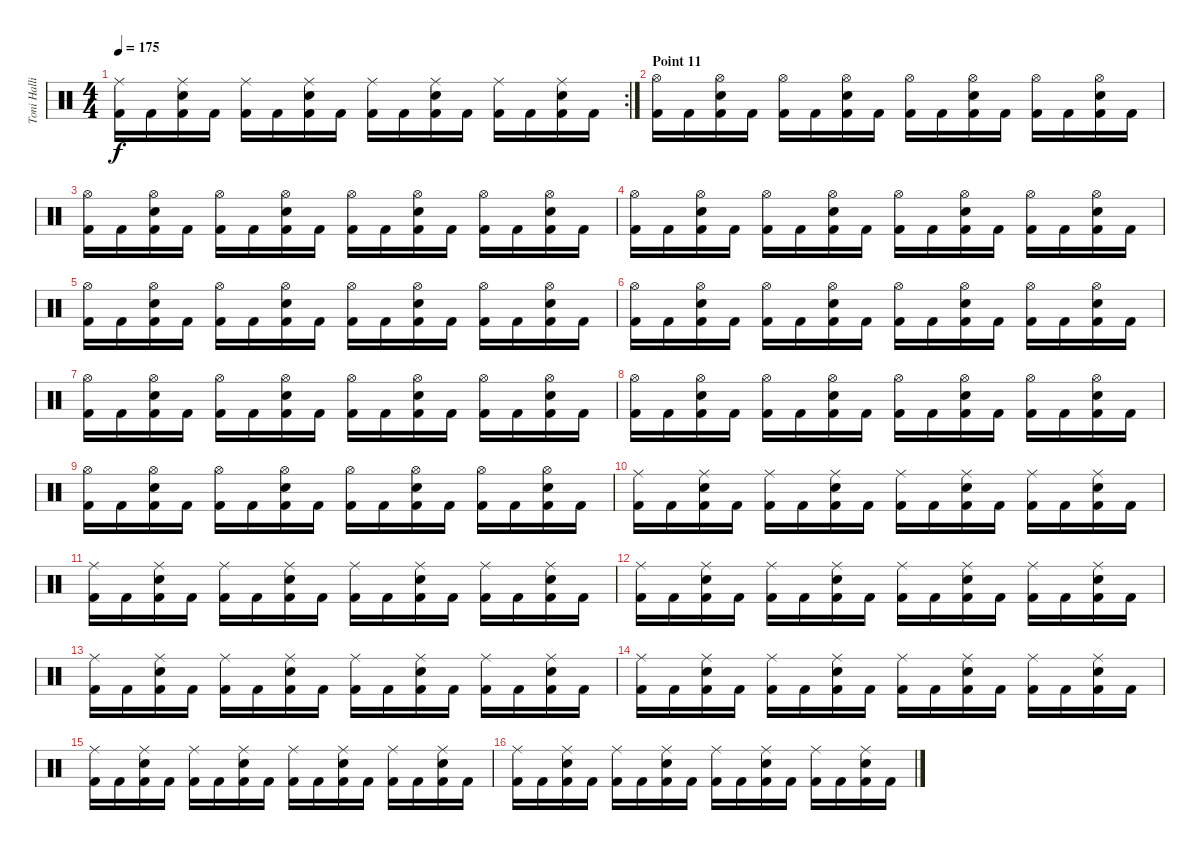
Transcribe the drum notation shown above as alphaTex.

\track ("Toni Hallio" "Toni Halli") {instrument percussion}
\staff {score}
\articulation defaults
\rc 2
\ts (4 4)
\tempo 175
\clef neutral
\ks c
("Ride (middle)" "Kick (hit) 2").16{dy f} "Kick (hit) 2".16 ("Ride (middle)" "Snare (hit) 2" "Kick (hit) 2").16 "Kick (hit) 2".16 ("Ride (middle)" "Kick (hit) 2").16 "Kick (hit) 2".16 ("Ride (middle)" "Snare (hit) 2" "Kick (hit) 2").16 "Kick (hit) 2".16 ("Ride (middle)" "Kick (hit) 2").16 "Kick (hit) 2".16 ("Ride (middle)" "Snare (hit) 2" "Kick (hit) 2").16 "Kick (hit) 2".16 ("Ride (middle)" "Kick (hit) 2").16 "Kick (hit) 2".16 ("Ride (middle)" "Snare (hit) 2" "Kick (hit) 2").16 "Kick (hit) 2".16 |
\section ("" "Point 11")
("Hi-Hat (open)" "Kick (hit) 2").16 "Kick (hit) 2".16 ("Hi-Hat (open)" "Snare (hit) 2" "Kick (hit) 2").16 "Kick (hit) 2".16 ("Hi-Hat (open)" "Kick (hit) 2").16 "Kick (hit) 2".16 ("Hi-Hat (open)" "Snare (hit) 2" "Kick (hit) 2").16 "Kick (hit) 2".16 ("Hi-Hat (open)" "Kick (hit) 2").16 "Kick (hit) 2".16 ("Hi-Hat (open)" "Snare (hit) 2" "Kick (hit) 2").16 "Kick (hit) 2".16 ("Hi-Hat (open)" "Kick (hit) 2").16 "Kick (hit) 2".16 ("Hi-Hat (open)" "Snare (hit) 2" "Kick (hit) 2").16 "Kick (hit) 2".16 |
("Hi-Hat (open)" "Kick (hit) 2").16 "Kick (hit) 2".16 ("Hi-Hat (open)" "Snare (hit) 2" "Kick (hit) 2").16 "Kick (hit) 2".16 ("Hi-Hat (open)" "Kick (hit) 2").16 "Kick (hit) 2".16 ("Hi-Hat (open)" "Snare (hit) 2" "Kick (hit) 2").16 "Kick (hit) 2".16 ("Hi-Hat (open)" "Kick (hit) 2").16 "Kick (hit) 2".16 ("Hi-Hat (open)" "Snare (hit) 2" "Kick (hit) 2").16 "Kick (hit) 2".16 ("Hi-Hat (open)" "Kick (hit) 2").16 "Kick (hit) 2".16 ("Hi-Hat (open)" "Snare (hit) 2" "Kick (hit) 2").16 "Kick (hit) 2".16 |
("Hi-Hat (open)" "Kick (hit) 2").16 "Kick (hit) 2".16 ("Hi-Hat (open)" "Snare (hit) 2" "Kick (hit) 2").16 "Kick (hit) 2".16 ("Hi-Hat (open)" "Kick (hit) 2").16 "Kick (hit) 2".16 ("Hi-Hat (open)" "Snare (hit) 2" "Kick (hit) 2").16 "Kick (hit) 2".16 ("Hi-Hat (open)" "Kick (hit) 2").16 "Kick (hit) 2".16 ("Hi-Hat (open)" "Snare (hit) 2" "Kick (hit) 2").16 "Kick (hit) 2".16 ("Hi-Hat (open)" "Kick (hit) 2").16 "Kick (hit) 2".16 ("Hi-Hat (open)" "Snare (hit) 2" "Kick (hit) 2").16 "Kick (hit) 2".16 |
("Hi-Hat (open)" "Kick (hit) 2").16 "Kick (hit) 2".16 ("Hi-Hat (open)" "Snare (hit) 2" "Kick (hit) 2").16 "Kick (hit) 2".16 ("Hi-Hat (open)" "Kick (hit) 2").16 "Kick (hit) 2".16 ("Hi-Hat (open)" "Snare (hit) 2" "Kick (hit) 2").16 "Kick (hit) 2".16 ("Hi-Hat (open)" "Kick (hit) 2").16 "Kick (hit) 2".16 ("Hi-Hat (open)" "Snare (hit) 2" "Kick (hit) 2").16 "Kick (hit) 2".16 ("Hi-Hat (open)" "Kick (hit) 2").16 "Kick (hit) 2".16 ("Hi-Hat (open)" "Snare (hit) 2" "Kick (hit) 2").16 "Kick (hit) 2".16 |
("Hi-Hat (open)" "Kick (hit) 2").16 "Kick (hit) 2".16 ("Hi-Hat (open)" "Snare (hit) 2" "Kick (hit) 2").16 "Kick (hit) 2".16 ("Hi-Hat (open)" "Kick (hit) 2").16 "Kick (hit) 2".16 ("Hi-Hat (open)" "Snare (hit) 2" "Kick (hit) 2").16 "Kick (hit) 2".16 ("Hi-Hat (open)" "Kick (hit) 2").16 "Kick (hit) 2".16 ("Hi-Hat (open)" "Snare (hit) 2" "Kick (hit) 2").16 "Kick (hit) 2".16 ("Hi-Hat (open)" "Kick (hit) 2").16 "Kick (hit) 2".16 ("Hi-Hat (open)" "Snare (hit) 2" "Kick (hit) 2").16 "Kick (hit) 2".16 |
("Hi-Hat (open)" "Kick (hit) 2").16 "Kick (hit) 2".16 ("Hi-Hat (open)" "Snare (hit) 2" "Kick (hit) 2").16 "Kick (hit) 2".16 ("Hi-Hat (open)" "Kick (hit) 2").16 "Kick (hit) 2".16 ("Hi-Hat (open)" "Snare (hit) 2" "Kick (hit) 2").16 "Kick (hit) 2".16 ("Hi-Hat (open)" "Kick (hit) 2").16 "Kick (hit) 2".16 ("Hi-Hat (open)" "Snare (hit) 2" "Kick (hit) 2").16 "Kick (hit) 2".16 ("Hi-Hat (open)" "Kick (hit) 2").16 "Kick (hit) 2".16 ("Hi-Hat (open)" "Snare (hit) 2" "Kick (hit) 2").16 "Kick (hit) 2".16 |
("Hi-Hat (open)" "Kick (hit) 2").16 "Kick (hit) 2".16 ("Hi-Hat (open)" "Snare (hit) 2" "Kick (hit) 2").16 "Kick (hit) 2".16 ("Hi-Hat (open)" "Kick (hit) 2").16 "Kick (hit) 2".16 ("Hi-Hat (open)" "Snare (hit) 2" "Kick (hit) 2").16 "Kick (hit) 2".16 ("Hi-Hat (open)" "Kick (hit) 2").16 "Kick (hit) 2".16 ("Hi-Hat (open)" "Snare (hit) 2" "Kick (hit) 2").16 "Kick (hit) 2".16 ("Hi-Hat (open)" "Kick (hit) 2").16 "Kick (hit) 2".16 ("Hi-Hat (open)" "Snare (hit) 2" "Kick (hit) 2").16 "Kick (hit) 2".16 |
("Hi-Hat (open)" "Kick (hit) 2").16 "Kick (hit) 2".16 ("Hi-Hat (open)" "Snare (hit) 2" "Kick (hit) 2").16 "Kick (hit) 2".16 ("Hi-Hat (open)" "Kick (hit) 2").16 "Kick (hit) 2".16 ("Hi-Hat (open)" "Snare (hit) 2" "Kick (hit) 2").16 "Kick (hit) 2".16 ("Hi-Hat (open)" "Kick (hit) 2").16 "Kick (hit) 2".16 ("Hi-Hat (open)" "Snare (hit) 2" "Kick (hit) 2").16 "Kick (hit) 2".16 ("Hi-Hat (open)" "Kick (hit) 2").16 "Kick (hit) 2".16 ("Hi-Hat (open)" "Snare (hit) 2" "Kick (hit) 2").16 "Kick (hit) 2".16 |
("Ride (middle)" "Kick (hit) 2").16 "Kick (hit) 2".16 ("Ride (middle)" "Snare (hit) 2" "Kick (hit) 2").16 "Kick (hit) 2".16 ("Ride (middle)" "Kick (hit) 2").16 "Kick (hit) 2".16 ("Ride (middle)" "Snare (hit) 2" "Kick (hit) 2").16 "Kick (hit) 2".16 ("Ride (middle)" "Kick (hit) 2").16 "Kick (hit) 2".16 ("Ride (middle)" "Snare (hit) 2" "Kick (hit) 2").16 "Kick (hit) 2".16 ("Ride (middle)" "Kick (hit) 2").16 "Kick (hit) 2".16 ("Ride (middle)" "Snare (hit) 2" "Kick (hit) 2").16 "Kick (hit) 2".16 |
("Ride (middle)" "Kick (hit) 2").16 "Kick (hit) 2".16 ("Ride (middle)" "Snare (hit) 2" "Kick (hit) 2").16 "Kick (hit) 2".16 ("Ride (middle)" "Kick (hit) 2").16 "Kick (hit) 2".16 ("Ride (middle)" "Snare (hit) 2" "Kick (hit) 2").16 "Kick (hit) 2".16 ("Ride (middle)" "Kick (hit) 2").16 "Kick (hit) 2".16 ("Ride (middle)" "Snare (hit) 2" "Kick (hit) 2").16 "Kick (hit) 2".16 ("Ride (middle)" "Kick (hit) 2").16 "Kick (hit) 2".16 ("Ride (middle)" "Snare (hit) 2" "Kick (hit) 2").16 "Kick (hit) 2".16 |
("Ride (middle)" "Kick (hit) 2").16 "Kick (hit) 2".16 ("Ride (middle)" "Snare (hit) 2" "Kick (hit) 2").16 "Kick (hit) 2".16 ("Ride (middle)" "Kick (hit) 2").16 "Kick (hit) 2".16 ("Ride (middle)" "Snare (hit) 2" "Kick (hit) 2").16 "Kick (hit) 2".16 ("Ride (middle)" "Kick (hit) 2").16 "Kick (hit) 2".16 ("Ride (middle)" "Snare (hit) 2" "Kick (hit) 2").16 "Kick (hit) 2".16 ("Ride (middle)" "Kick (hit) 2").16 "Kick (hit) 2".16 ("Ride (middle)" "Snare (hit) 2" "Kick (hit) 2").16 "Kick (hit) 2".16 |
("Ride (middle)" "Kick (hit) 2").16 "Kick (hit) 2".16 ("Ride (middle)" "Snare (hit) 2" "Kick (hit) 2").16 "Kick (hit) 2".16 ("Ride (middle)" "Kick (hit) 2").16 "Kick (hit) 2".16 ("Ride (middle)" "Snare (hit) 2" "Kick (hit) 2").16 "Kick (hit) 2".16 ("Ride (middle)" "Kick (hit) 2").16 "Kick (hit) 2".16 ("Ride (middle)" "Snare (hit) 2" "Kick (hit) 2").16 "Kick (hit) 2".16 ("Ride (middle)" "Kick (hit) 2").16 "Kick (hit) 2".16 ("Ride (middle)" "Snare (hit) 2" "Kick (hit) 2").16 "Kick (hit) 2".16 |
("Ride (middle)" "Kick (hit) 2").16 "Kick (hit) 2".16 ("Ride (middle)" "Snare (hit) 2" "Kick (hit) 2").16 "Kick (hit) 2".16 ("Ride (middle)" "Kick (hit) 2").16 "Kick (hit) 2".16 ("Ride (middle)" "Snare (hit) 2" "Kick (hit) 2").16 "Kick (hit) 2".16 ("Ride (middle)" "Kick (hit) 2").16 "Kick (hit) 2".16 ("Ride (middle)" "Snare (hit) 2" "Kick (hit) 2").16 "Kick (hit) 2".16 ("Ride (middle)" "Kick (hit) 2").16 "Kick (hit) 2".16 ("Ride (middle)" "Snare (hit) 2" "Kick (hit) 2").16 "Kick (hit) 2".16 |
("Ride (middle)" "Kick (hit) 2").16 "Kick (hit) 2".16 ("Ride (middle)" "Snare (hit) 2" "Kick (hit) 2").16 "Kick (hit) 2".16 ("Ride (middle)" "Kick (hit) 2").16 "Kick (hit) 2".16 ("Ride (middle)" "Snare (hit) 2" "Kick (hit) 2").16 "Kick (hit) 2".16 ("Ride (middle)" "Kick (hit) 2").16 "Kick (hit) 2".16 ("Ride (middle)" "Snare (hit) 2" "Kick (hit) 2").16 "Kick (hit) 2".16 ("Ride (middle)" "Kick (hit) 2").16 "Kick (hit) 2".16 ("Ride (middle)" "Snare (hit) 2" "Kick (hit) 2").16 "Kick (hit) 2".16 |
("Ride (middle)" "Kick (hit) 2").16 "Kick (hit) 2".16 ("Ride (middle)" "Snare (hit) 2" "Kick (hit) 2").16 "Kick (hit) 2".16 ("Ride (middle)" "Kick (hit) 2").16 "Kick (hit) 2".16 ("Ride (middle)" "Snare (hit) 2" "Kick (hit) 2").16 "Kick (hit) 2".16 ("Ride (middle)" "Kick (hit) 2").16 "Kick (hit) 2".16 ("Ride (middle)" "Snare (hit) 2" "Kick (hit) 2").16 "Kick (hit) 2".16 ("Ride (middle)" "Kick (hit) 2").16 "Kick (hit) 2".16 ("Ride (middle)" "Snare (hit) 2" "Kick (hit) 2").16 "Kick (hit) 2".16
